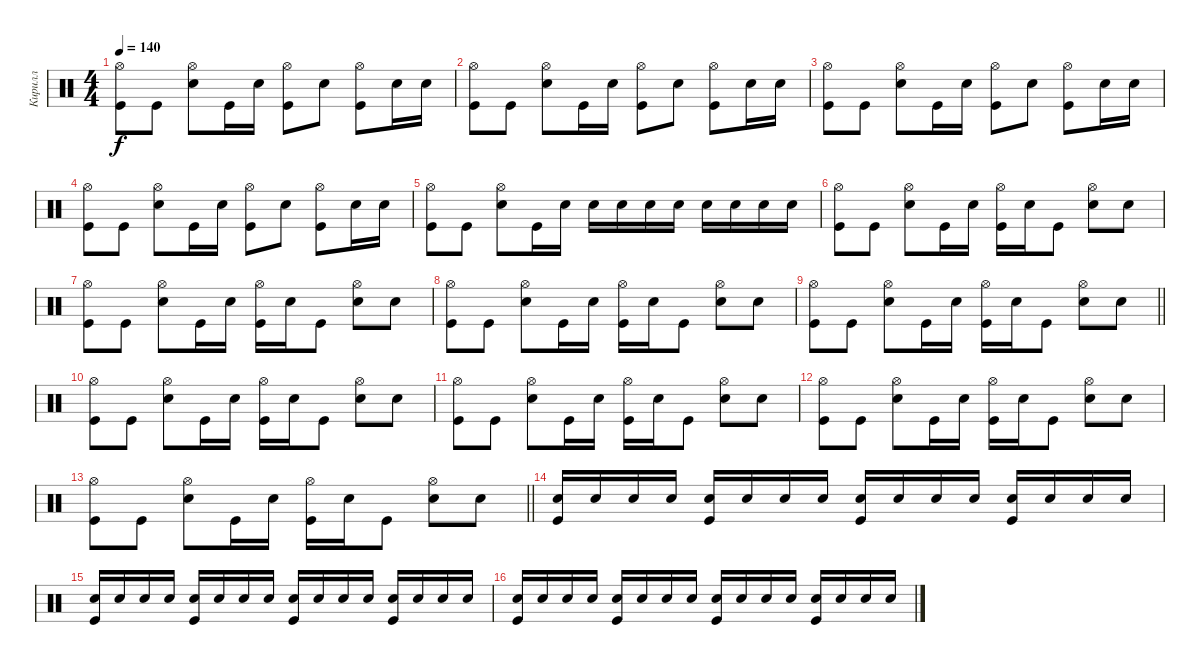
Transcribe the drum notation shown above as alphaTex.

\track ("Кирилл" "Кирилл") {instrument percussion}
\staff {score}
\articulation defaults
\ts (4 4)
\tempo 140
\clef neutral
\ks c
("Hi-Hat (open)" "Kick (hit)").8{dy f} "Kick (hit)".8 ("Hi-Hat (open)" "Snare (hit) 2").8 "Kick (hit)".16 "Snare (hit) 2".16 ("Hi-Hat (open)" "Kick (hit)").8 "Snare (hit) 2".8 ("Hi-Hat (open)" "Kick (hit)").8 "Snare (hit) 2".16 "Snare (hit) 2".16 |
("Hi-Hat (open)" "Kick (hit)").8 "Kick (hit)".8 ("Hi-Hat (open)" "Snare (hit) 2").8 "Kick (hit)".16 "Snare (hit) 2".16 ("Hi-Hat (open)" "Kick (hit)").8 "Snare (hit) 2".8 ("Hi-Hat (open)" "Kick (hit)").8 "Snare (hit) 2".16 "Snare (hit) 2".16 |
("Hi-Hat (open)" "Kick (hit)").8 "Kick (hit)".8 ("Hi-Hat (open)" "Snare (hit) 2").8 "Kick (hit)".16 "Snare (hit) 2".16 ("Hi-Hat (open)" "Kick (hit)").8 "Snare (hit) 2".8 ("Hi-Hat (open)" "Kick (hit)").8 "Snare (hit) 2".16 "Snare (hit) 2".16 |
("Hi-Hat (open)" "Kick (hit)").8 "Kick (hit)".8 ("Hi-Hat (open)" "Snare (hit) 2").8 "Kick (hit)".16 "Snare (hit) 2".16 ("Hi-Hat (open)" "Kick (hit)").8 "Snare (hit) 2".8 ("Hi-Hat (open)" "Kick (hit)").8 "Snare (hit) 2".16 "Snare (hit) 2".16 |
("Hi-Hat (open)" "Kick (hit)").8 "Kick (hit)".8 ("Hi-Hat (open)" "Snare (hit) 2").8 "Kick (hit)".16 "Snare (hit) 2".16 "Snare (hit) 2".16 "Snare (hit) 2".16 "Snare (hit) 2".16 "Snare (hit) 2".16 "Snare (hit) 2".16 "Snare (hit) 2".16 "Snare (hit) 2".16 "Snare (hit) 2".16 |
("Hi-Hat (open)" "Kick (hit)").8 "Kick (hit)".8 ("Hi-Hat (open)" "Snare (hit) 2").8 "Kick (hit)".16 "Snare (hit) 2".16 ("Hi-Hat (open)" "Kick (hit)").16 "Snare (hit) 2".16 "Kick (hit)".8 ("Hi-Hat (open)" "Snare (hit) 2").8 "Snare (hit) 2".8 |
("Hi-Hat (open)" "Kick (hit)").8 "Kick (hit)".8 ("Hi-Hat (open)" "Snare (hit) 2").8 "Kick (hit)".16 "Snare (hit) 2".16 ("Hi-Hat (open)" "Kick (hit)").16 "Snare (hit) 2".16 "Kick (hit)".8 ("Hi-Hat (open)" "Snare (hit) 2").8 "Snare (hit) 2".8 |
("Hi-Hat (open)" "Kick (hit)").8 "Kick (hit)".8 ("Hi-Hat (open)" "Snare (hit) 2").8 "Kick (hit)".16 "Snare (hit) 2".16 ("Hi-Hat (open)" "Kick (hit)").16 "Snare (hit) 2".16 "Kick (hit)".8 ("Hi-Hat (open)" "Snare (hit) 2").8 "Snare (hit) 2".8 |
\barLineRight lightlight
("Hi-Hat (open)" "Kick (hit)").8 "Kick (hit)".8 ("Hi-Hat (open)" "Snare (hit) 2").8 "Kick (hit)".16 "Snare (hit) 2".16 ("Hi-Hat (open)" "Kick (hit)").16 "Snare (hit) 2".16 "Kick (hit)".8 ("Hi-Hat (open)" "Snare (hit) 2").8 "Snare (hit) 2".8 |
("Hi-Hat (open)" "Kick (hit)").8 "Kick (hit)".8 ("Hi-Hat (open)" "Snare (hit) 2").8 "Kick (hit)".16 "Snare (hit) 2".16 ("Hi-Hat (open)" "Kick (hit)").16 "Snare (hit) 2".16 "Kick (hit)".8 ("Hi-Hat (open)" "Snare (hit) 2").8 "Snare (hit) 2".8 |
("Hi-Hat (open)" "Kick (hit)").8 "Kick (hit)".8 ("Hi-Hat (open)" "Snare (hit) 2").8 "Kick (hit)".16 "Snare (hit) 2".16 ("Hi-Hat (open)" "Kick (hit)").16 "Snare (hit) 2".16 "Kick (hit)".8 ("Hi-Hat (open)" "Snare (hit) 2").8 "Snare (hit) 2".8 |
("Hi-Hat (open)" "Kick (hit)").8 "Kick (hit)".8 ("Hi-Hat (open)" "Snare (hit) 2").8 "Kick (hit)".16 "Snare (hit) 2".16 ("Hi-Hat (open)" "Kick (hit)").16 "Snare (hit) 2".16 "Kick (hit)".8 ("Hi-Hat (open)" "Snare (hit) 2").8 "Snare (hit) 2".8 |
\barLineRight lightlight
("Hi-Hat (open)" "Kick (hit)").8 "Kick (hit)".8 ("Hi-Hat (open)" "Snare (hit) 2").8 "Kick (hit)".16 "Snare (hit) 2".16 ("Hi-Hat (open)" "Kick (hit)").16 "Snare (hit) 2".16 "Kick (hit)".8 ("Hi-Hat (open)" "Snare (hit) 2").8 "Snare (hit) 2".8 |
("Snare (hit) 2" "Kick (hit)").16{volume 8} "Snare (hit) 2".16 "Snare (hit) 2".16 "Snare (hit) 2".16 ("Snare (hit) 2" "Kick (hit)").16 "Snare (hit) 2".16 "Snare (hit) 2".16 "Snare (hit) 2".16 ("Snare (hit) 2" "Kick (hit)").16 "Snare (hit) 2".16 "Snare (hit) 2".16 "Snare (hit) 2".16 ("Snare (hit) 2" "Kick (hit)").16 "Snare (hit) 2".16 "Snare (hit) 2".16 "Snare (hit) 2".16 |
("Snare (hit) 2" "Kick (hit)").16 "Snare (hit) 2".16 "Snare (hit) 2".16 "Snare (hit) 2".16 ("Snare (hit) 2" "Kick (hit)").16 "Snare (hit) 2".16 "Snare (hit) 2".16 "Snare (hit) 2".16 ("Snare (hit) 2" "Kick (hit)").16 "Snare (hit) 2".16 "Snare (hit) 2".16 "Snare (hit) 2".16 ("Snare (hit) 2" "Kick (hit)").16 "Snare (hit) 2".16 "Snare (hit) 2".16 "Snare (hit) 2".16 |
("Snare (hit) 2" "Kick (hit)").16 "Snare (hit) 2".16 "Snare (hit) 2".16 "Snare (hit) 2".16 ("Snare (hit) 2" "Kick (hit)").16 "Snare (hit) 2".16 "Snare (hit) 2".16 "Snare (hit) 2".16 ("Snare (hit) 2" "Kick (hit)").16 "Snare (hit) 2".16 "Snare (hit) 2".16 "Snare (hit) 2".16 ("Snare (hit) 2" "Kick (hit)").16 "Snare (hit) 2".16 "Snare (hit) 2".16 "Snare (hit) 2".16
